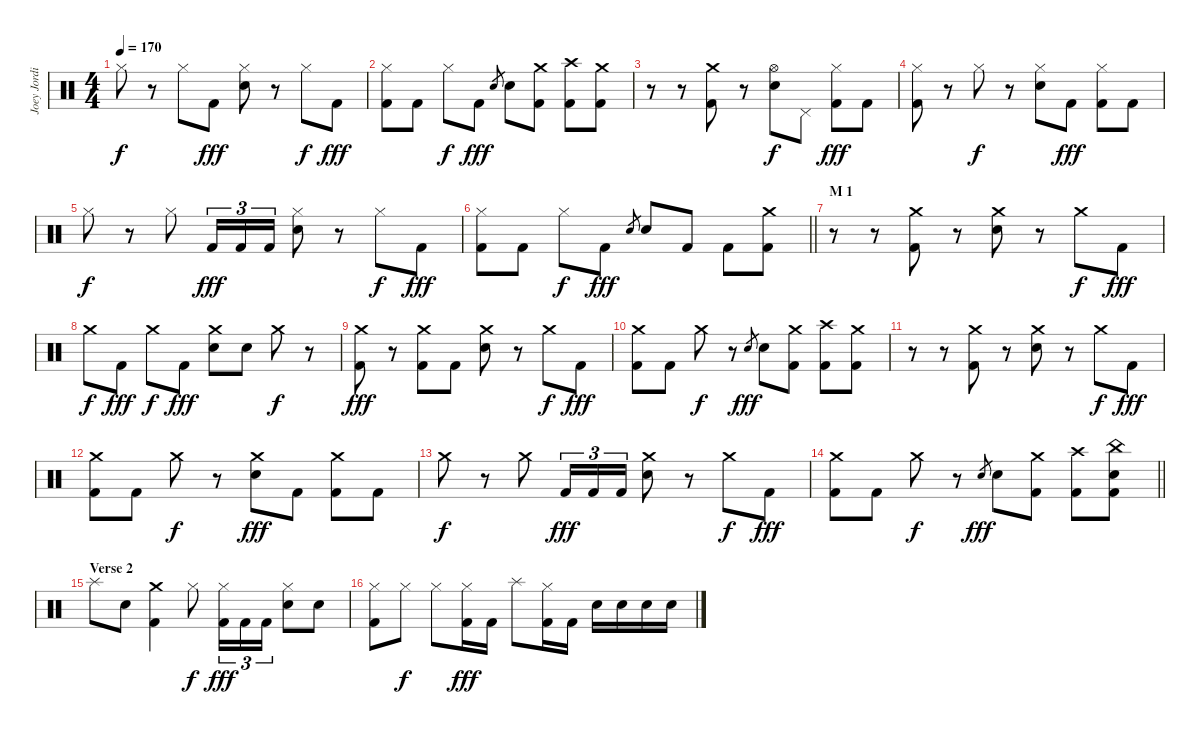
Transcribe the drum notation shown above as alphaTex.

\track ("Joey Jordison" "Joey Jordi") {instrument percussion}
\staff {score}
\articulation defaults
\ts (4 4)
\tempo 170
\clef neutral
\ks c "Hi-Hat (closed)".8{dy f}
r.8 "Hi-Hat (closed)".8 "Kick (hit) 2".8{dy fff} ("Hi-Hat (closed)" "Electric Snare (hit)").8 r.8 "Hi-Hat (closed)".8{dy f} "Kick (hit) 2".8{dy fff} |
("Hi-Hat (closed)" "Kick (hit) 2").8 "Kick (hit) 2".8 "Hi-Hat (closed)".8{dy f} "Kick (hit) 2".8{dy fff} "Electric Snare (hit)".8{gr} "Electric Snare (hit)".8 ("Crash medium (hit)" "Kick (hit) 2").8 ("Crash high (hit)" "Kick (hit) 2").8 ("Crash medium (hit)" "Kick (hit) 2").8 |
r.8 r.8 ("Crash medium (hit)" "Kick (hit) 2").8 r.8 ("Hi-Hat (open)" "Electric Snare (hit)").8{dy f} "Pedal Hi-Hat (hit)".8 ("Hi-Hat (closed)" "Kick (hit) 2").8{dy fff} "Kick (hit) 2".8 |
("Hi-Hat (closed)" "Kick (hit) 2").8 r.8 "Hi-Hat (closed)".8{dy f} r.8 ("Hi-Hat (closed)" "Electric Snare (hit)").8 "Kick (hit) 2".8{dy fff} ("Hi-Hat (closed)" "Kick (hit) 2").8 "Kick (hit) 2".8 |
"Hi-Hat (closed)".8{dy f} r.8 "Hi-Hat (closed)".8 "Kick (hit) 2".16{tu (3 2) dy fff} "Kick (hit) 2".16{tu (3 2)} "Kick (hit) 2".16{tu (3 2)} ("Hi-Hat (closed)" "Electric Snare (hit)").8 r.8 "Hi-Hat (closed)".8{dy f} "Kick (hit) 2".8{dy fff} |
\barLineRight lightlight
("Hi-Hat (closed)" "Kick (hit) 2").8 "Kick (hit) 2".8 "Hi-Hat (closed)".8{dy f} "Kick (hit) 2".8{dy fff} "Electric Snare (hit)".8{gr} "Electric Snare (hit)".8 "Kick (hit) 2".8 "Kick (hit) 2".8 ("Crash medium (hit)" "Kick (hit) 2").8 |
\section ("" "M 1")
r.8 r.8 ("Crash medium (hit)" "Kick (hit) 2").8 r.8 ("Crash medium (hit)" "Electric Snare (hit)").8 r.8 "Crash medium (hit)".8{dy f} "Kick (hit) 2".8{dy fff} |
"Crash medium (hit)".8{dy f} "Kick (hit) 2".8{dy fff} "Crash medium (hit)".8{dy f} "Kick (hit) 2".8{dy fff} ("Crash medium (hit)" "Electric Snare (hit)").8 "Electric Snare (hit)".8 "Crash medium (hit)".8{dy f} r.8 |
("Crash medium (hit)" "Kick (hit) 2").8{dy fff} r.8 ("Crash medium (hit)" "Kick (hit) 2").8 "Kick (hit) 2".8 ("Crash medium (hit)" "Electric Snare (hit)").8 r.8 "Crash medium (hit)".8{dy f} "Kick (hit) 2".8{dy fff} |
("Crash medium (hit)" "Kick (hit) 2").8 "Kick (hit) 2".8 "Crash medium (hit)".8{dy f} r.8 "Electric Snare (hit)".8{gr dy fff} "Electric Snare (hit)".8 ("Crash medium (hit)" "Kick (hit) 2").8 ("Crash high (hit)" "Kick (hit) 2").8 ("Crash medium (hit)" "Kick (hit) 2").8 |
r.8 r.8 ("Crash medium (hit)" "Kick (hit) 2").8 r.8 ("Crash medium (hit)" "Electric Snare (hit)").8 r.8 "Crash medium (hit)".8{dy f} "Kick (hit) 2".8{dy fff} |
("Crash medium (hit)" "Kick (hit) 2").8 "Kick (hit) 2".8 "Crash medium (hit)".8{dy f} r.8 ("Crash medium (hit)" "Electric Snare (hit)").8{dy fff} "Kick (hit) 2".8 ("Crash medium (hit)" "Kick (hit) 2").8 "Kick (hit) 2".8 |
"Crash medium (hit)".8{dy f} r.8 "Crash medium (hit)".8 "Kick (hit) 2".16{tu (3 2) dy fff} "Kick (hit) 2".16{tu (3 2)} "Kick (hit) 2".16{tu (3 2)} ("Crash medium (hit)" "Electric Snare (hit)").8 r.8 "Crash medium (hit)".8{dy f} "Kick (hit) 2".8{dy fff} |
\barLineRight lightlight
("Crash medium (hit)" "Kick (hit) 2").8 "Kick (hit) 2".8 "Crash medium (hit)".8{dy f} r.8 "Electric Snare (hit)".8{gr dy fff} "Electric Snare (hit)".8 ("Crash medium (hit)" "Kick (hit) 2").8 ("Crash high (hit)" "Kick (hit) 2").8 ("China (hit)" "Electric Snare (hit)" "Kick (hit) 2").8 |
\section ("" "Verse 2")
"Splash (hit)".8 "Electric Snare (hit)".8 ("Crash medium (hit)" "Kick (hit) 2").4 "Hi-Hat (closed)".8{dy f} ("Hi-Hat (closed)" "Kick (hit) 2").16{tu (3 2) dy fff} "Kick (hit) 2".16{tu (3 2)} "Kick (hit) 2".16{tu (3 2)} ("Hi-Hat (closed)" "Electric Snare (hit)").8 "Electric Snare (hit)".8 |
("Hi-Hat (closed)" "Kick (hit) 2").8 "Hi-Hat (closed)".8{dy f} "Hi-Hat (closed)".8 ("Hi-Hat (closed)" "Kick (hit) 2").16{dy fff} "Kick (hit) 2".16 "Splash (hit)".8 ("Hi-Hat (closed)" "Kick (hit) 2").16 "Kick (hit) 2".16 "Electric Snare (hit)".16 "Electric Snare (hit)".16 "Electric Snare (hit)".16 "Electric Snare (hit)".16
